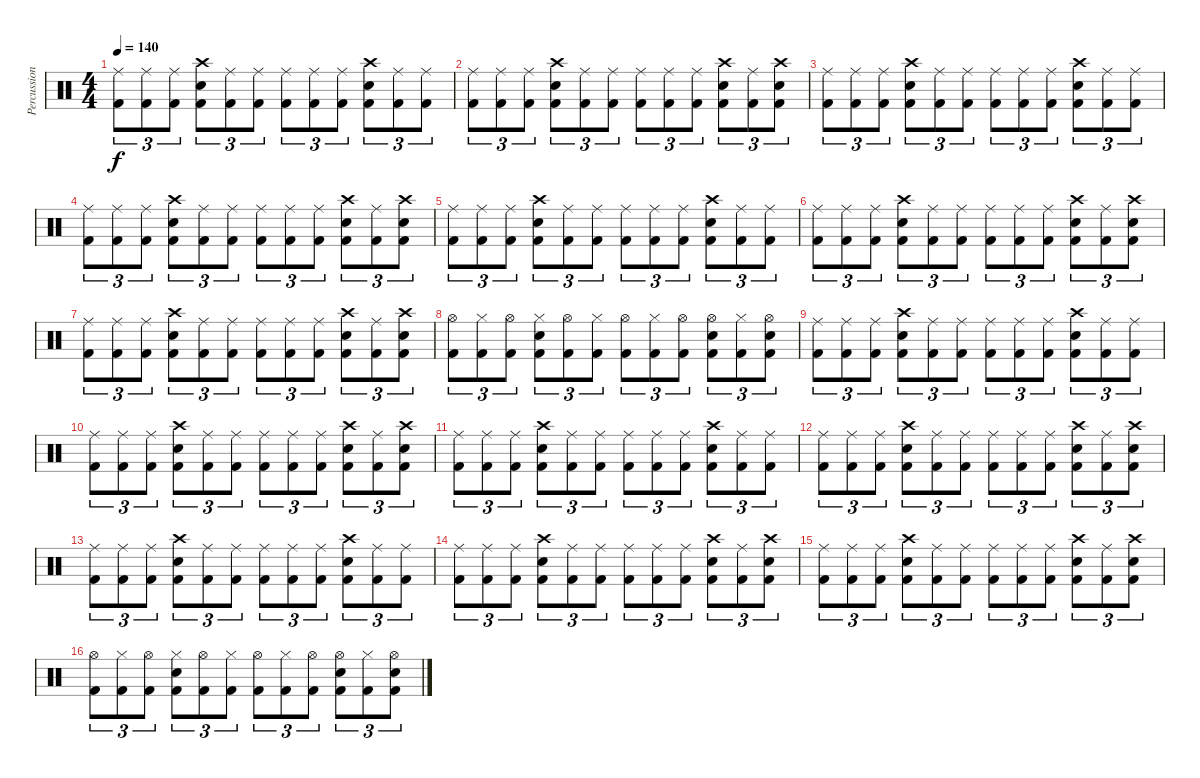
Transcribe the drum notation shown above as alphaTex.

\track ("Percussion" "Percussion") {instrument percussion}
\staff {score}
\articulation defaults
\ts (4 4)
\tempo 140
\clef neutral
\ks c
("Ride (middle)" "Kick (hit) 2").8{tu (3 2) dy f} ("Ride (middle)" "Kick (hit) 2").8{tu (3 2)} ("Ride (middle)" "Kick (hit) 2").8{tu (3 2)} ("Crash high (hit)" "Electric Snare (hit)" "Kick (hit) 2").8{tu (3 2)} ("Ride (middle)" "Kick (hit) 2").8{tu (3 2)} ("Ride (middle)" "Kick (hit) 2").8{tu (3 2)} ("Ride (middle)" "Kick (hit) 2").8{tu (3 2)} ("Ride (middle)" "Kick (hit) 2").8{tu (3 2)} ("Ride (middle)" "Kick (hit) 2").8{tu (3 2)} ("Crash high (hit)" "Electric Snare (hit)" "Kick (hit) 2").8{tu (3 2)} ("Ride (middle)" "Kick (hit) 2").8{tu (3 2)} ("Ride (middle)" "Kick (hit) 2").8{tu (3 2)} |
("Ride (middle)" "Kick (hit) 2").8{tu (3 2)} ("Ride (middle)" "Kick (hit) 2").8{tu (3 2)} ("Ride (middle)" "Kick (hit) 2").8{tu (3 2)} ("Crash high (hit)" "Electric Snare (hit)" "Kick (hit) 2").8{tu (3 2)} ("Ride (middle)" "Kick (hit) 2").8{tu (3 2)} ("Ride (middle)" "Kick (hit) 2").8{tu (3 2)} ("Ride (middle)" "Kick (hit) 2").8{tu (3 2)} ("Ride (middle)" "Kick (hit) 2").8{tu (3 2)} ("Ride (middle)" "Kick (hit) 2").8{tu (3 2)} ("Crash high (hit)" "Electric Snare (hit)" "Kick (hit) 2").8{tu (3 2)} ("Ride (middle)" "Kick (hit) 2").8{tu (3 2)} ("Crash high (hit)" "Electric Snare (hit)" "Kick (hit) 2").8{tu (3 2)} |
("Ride (middle)" "Kick (hit) 2").8{tu (3 2)} ("Ride (middle)" "Kick (hit) 2").8{tu (3 2)} ("Ride (middle)" "Kick (hit) 2").8{tu (3 2)} ("Crash high (hit)" "Electric Snare (hit)" "Kick (hit) 2").8{tu (3 2)} ("Ride (middle)" "Kick (hit) 2").8{tu (3 2)} ("Ride (middle)" "Kick (hit) 2").8{tu (3 2)} ("Ride (middle)" "Kick (hit) 2").8{tu (3 2)} ("Ride (middle)" "Kick (hit) 2").8{tu (3 2)} ("Ride (middle)" "Kick (hit) 2").8{tu (3 2)} ("Crash high (hit)" "Electric Snare (hit)" "Kick (hit) 2").8{tu (3 2)} ("Ride (middle)" "Kick (hit) 2").8{tu (3 2)} ("Ride (middle)" "Kick (hit) 2").8{tu (3 2)} |
("Ride (middle)" "Kick (hit) 2").8{tu (3 2)} ("Ride (middle)" "Kick (hit) 2").8{tu (3 2)} ("Ride (middle)" "Kick (hit) 2").8{tu (3 2)} ("Crash high (hit)" "Electric Snare (hit)" "Kick (hit) 2").8{tu (3 2)} ("Ride (middle)" "Kick (hit) 2").8{tu (3 2)} ("Ride (middle)" "Kick (hit) 2").8{tu (3 2)} ("Ride (middle)" "Kick (hit) 2").8{tu (3 2)} ("Ride (middle)" "Kick (hit) 2").8{tu (3 2)} ("Ride (middle)" "Kick (hit) 2").8{tu (3 2)} ("Crash high (hit)" "Electric Snare (hit)" "Kick (hit) 2").8{tu (3 2)} ("Ride (middle)" "Kick (hit) 2").8{tu (3 2)} ("Crash high (hit)" "Electric Snare (hit)" "Kick (hit) 2").8{tu (3 2)} |
("Ride (middle)" "Kick (hit) 2").8{tu (3 2)} ("Ride (middle)" "Kick (hit) 2").8{tu (3 2)} ("Ride (middle)" "Kick (hit) 2").8{tu (3 2)} ("Crash high (hit)" "Electric Snare (hit)" "Kick (hit) 2").8{tu (3 2)} ("Ride (middle)" "Kick (hit) 2").8{tu (3 2)} ("Ride (middle)" "Kick (hit) 2").8{tu (3 2)} ("Ride (middle)" "Kick (hit) 2").8{tu (3 2)} ("Ride (middle)" "Kick (hit) 2").8{tu (3 2)} ("Ride (middle)" "Kick (hit) 2").8{tu (3 2)} ("Crash high (hit)" "Electric Snare (hit)" "Kick (hit) 2").8{tu (3 2)} ("Ride (middle)" "Kick (hit) 2").8{tu (3 2)} ("Ride (middle)" "Kick (hit) 2").8{tu (3 2)} |
("Ride (middle)" "Kick (hit) 2").8{tu (3 2)} ("Ride (middle)" "Kick (hit) 2").8{tu (3 2)} ("Ride (middle)" "Kick (hit) 2").8{tu (3 2)} ("Crash high (hit)" "Electric Snare (hit)" "Kick (hit) 2").8{tu (3 2)} ("Ride (middle)" "Kick (hit) 2").8{tu (3 2)} ("Ride (middle)" "Kick (hit) 2").8{tu (3 2)} ("Ride (middle)" "Kick (hit) 2").8{tu (3 2)} ("Ride (middle)" "Kick (hit) 2").8{tu (3 2)} ("Ride (middle)" "Kick (hit) 2").8{tu (3 2)} ("Crash high (hit)" "Electric Snare (hit)" "Kick (hit) 2").8{tu (3 2)} ("Ride (middle)" "Kick (hit) 2").8{tu (3 2)} ("Crash high (hit)" "Electric Snare (hit)" "Kick (hit) 2").8{tu (3 2)} |
("Ride (middle)" "Kick (hit) 2").8{tu (3 2)} ("Ride (middle)" "Kick (hit) 2").8{tu (3 2)} ("Ride (middle)" "Kick (hit) 2").8{tu (3 2)} ("Crash high (hit)" "Electric Snare (hit)" "Kick (hit) 2").8{tu (3 2)} ("Ride (middle)" "Kick (hit) 2").8{tu (3 2)} ("Ride (middle)" "Kick (hit) 2").8{tu (3 2)} ("Ride (middle)" "Kick (hit) 2").8{tu (3 2)} ("Ride (middle)" "Kick (hit) 2").8{tu (3 2)} ("Ride (middle)" "Kick (hit) 2").8{tu (3 2)} ("Crash high (hit)" "Electric Snare (hit)" "Kick (hit) 2").8{tu (3 2)} ("Ride (middle)" "Kick (hit) 2").8{tu (3 2)} ("Crash high (hit)" "Electric Snare (hit)" "Kick (hit) 2").8{tu (3 2)} |
("Hi-Hat (open)" "Kick (hit) 2").8{tu (3 2)} ("Hi-Hat (closed)" "Kick (hit) 2").8{tu (3 2)} ("Hi-Hat (open)" "Kick (hit) 2").8{tu (3 2)} ("Hi-Hat (closed)" "Electric Snare (hit)" "Kick (hit) 2").8{tu (3 2)} ("Hi-Hat (open)" "Kick (hit) 2").8{tu (3 2)} ("Hi-Hat (closed)" "Kick (hit) 2").8{tu (3 2)} ("Hi-Hat (open)" "Kick (hit) 2").8{tu (3 2)} ("Hi-Hat (closed)" "Kick (hit) 2").8{tu (3 2)} ("Hi-Hat (open)" "Kick (hit) 2").8{tu (3 2)} ("Hi-Hat (open)" "Electric Snare (hit)" "Kick (hit) 2").8{tu (3 2)} ("Hi-Hat (closed)" "Kick (hit) 2").8{tu (3 2)} ("Hi-Hat (open)" "Electric Snare (hit)" "Kick (hit) 2").8{tu (3 2)} |
("Ride (middle)" "Kick (hit) 2").8{tu (3 2)} ("Ride (middle)" "Kick (hit) 2").8{tu (3 2)} ("Ride (middle)" "Kick (hit) 2").8{tu (3 2)} ("Crash high (hit)" "Electric Snare (hit)" "Kick (hit) 2").8{tu (3 2)} ("Ride (middle)" "Kick (hit) 2").8{tu (3 2)} ("Ride (middle)" "Kick (hit) 2").8{tu (3 2)} ("Ride (middle)" "Kick (hit) 2").8{tu (3 2)} ("Ride (middle)" "Kick (hit) 2").8{tu (3 2)} ("Ride (middle)" "Kick (hit) 2").8{tu (3 2)} ("Crash high (hit)" "Electric Snare (hit)" "Kick (hit) 2").8{tu (3 2)} ("Ride (middle)" "Kick (hit) 2").8{tu (3 2)} ("Ride (middle)" "Kick (hit) 2").8{tu (3 2)} |
("Ride (middle)" "Kick (hit) 2").8{tu (3 2)} ("Ride (middle)" "Kick (hit) 2").8{tu (3 2)} ("Ride (middle)" "Kick (hit) 2").8{tu (3 2)} ("Crash high (hit)" "Electric Snare (hit)" "Kick (hit) 2").8{tu (3 2)} ("Ride (middle)" "Kick (hit) 2").8{tu (3 2)} ("Ride (middle)" "Kick (hit) 2").8{tu (3 2)} ("Ride (middle)" "Kick (hit) 2").8{tu (3 2)} ("Ride (middle)" "Kick (hit) 2").8{tu (3 2)} ("Ride (middle)" "Kick (hit) 2").8{tu (3 2)} ("Crash high (hit)" "Electric Snare (hit)" "Kick (hit) 2").8{tu (3 2)} ("Ride (middle)" "Kick (hit) 2").8{tu (3 2)} ("Crash high (hit)" "Electric Snare (hit)" "Kick (hit) 2").8{tu (3 2)} |
("Ride (middle)" "Kick (hit) 2").8{tu (3 2)} ("Ride (middle)" "Kick (hit) 2").8{tu (3 2)} ("Ride (middle)" "Kick (hit) 2").8{tu (3 2)} ("Crash high (hit)" "Electric Snare (hit)" "Kick (hit) 2").8{tu (3 2)} ("Ride (middle)" "Kick (hit) 2").8{tu (3 2)} ("Ride (middle)" "Kick (hit) 2").8{tu (3 2)} ("Ride (middle)" "Kick (hit) 2").8{tu (3 2)} ("Ride (middle)" "Kick (hit) 2").8{tu (3 2)} ("Ride (middle)" "Kick (hit) 2").8{tu (3 2)} ("Crash high (hit)" "Electric Snare (hit)" "Kick (hit) 2").8{tu (3 2)} ("Ride (middle)" "Kick (hit) 2").8{tu (3 2)} ("Ride (middle)" "Kick (hit) 2").8{tu (3 2)} |
("Ride (middle)" "Kick (hit) 2").8{tu (3 2)} ("Ride (middle)" "Kick (hit) 2").8{tu (3 2)} ("Ride (middle)" "Kick (hit) 2").8{tu (3 2)} ("Crash high (hit)" "Electric Snare (hit)" "Kick (hit) 2").8{tu (3 2)} ("Ride (middle)" "Kick (hit) 2").8{tu (3 2)} ("Ride (middle)" "Kick (hit) 2").8{tu (3 2)} ("Ride (middle)" "Kick (hit) 2").8{tu (3 2)} ("Ride (middle)" "Kick (hit) 2").8{tu (3 2)} ("Ride (middle)" "Kick (hit) 2").8{tu (3 2)} ("Crash high (hit)" "Electric Snare (hit)" "Kick (hit) 2").8{tu (3 2)} ("Ride (middle)" "Kick (hit) 2").8{tu (3 2)} ("Crash high (hit)" "Electric Snare (hit)" "Kick (hit) 2").8{tu (3 2)} |
("Ride (middle)" "Kick (hit) 2").8{tu (3 2)} ("Ride (middle)" "Kick (hit) 2").8{tu (3 2)} ("Ride (middle)" "Kick (hit) 2").8{tu (3 2)} ("Crash high (hit)" "Electric Snare (hit)" "Kick (hit) 2").8{tu (3 2)} ("Ride (middle)" "Kick (hit) 2").8{tu (3 2)} ("Ride (middle)" "Kick (hit) 2").8{tu (3 2)} ("Ride (middle)" "Kick (hit) 2").8{tu (3 2)} ("Ride (middle)" "Kick (hit) 2").8{tu (3 2)} ("Ride (middle)" "Kick (hit) 2").8{tu (3 2)} ("Crash high (hit)" "Electric Snare (hit)" "Kick (hit) 2").8{tu (3 2)} ("Ride (middle)" "Kick (hit) 2").8{tu (3 2)} ("Ride (middle)" "Kick (hit) 2").8{tu (3 2)} |
("Ride (middle)" "Kick (hit) 2").8{tu (3 2)} ("Ride (middle)" "Kick (hit) 2").8{tu (3 2)} ("Ride (middle)" "Kick (hit) 2").8{tu (3 2)} ("Crash high (hit)" "Electric Snare (hit)" "Kick (hit) 2").8{tu (3 2)} ("Ride (middle)" "Kick (hit) 2").8{tu (3 2)} ("Ride (middle)" "Kick (hit) 2").8{tu (3 2)} ("Ride (middle)" "Kick (hit) 2").8{tu (3 2)} ("Ride (middle)" "Kick (hit) 2").8{tu (3 2)} ("Ride (middle)" "Kick (hit) 2").8{tu (3 2)} ("Crash high (hit)" "Electric Snare (hit)" "Kick (hit) 2").8{tu (3 2)} ("Ride (middle)" "Kick (hit) 2").8{tu (3 2)} ("Crash high (hit)" "Electric Snare (hit)" "Kick (hit) 2").8{tu (3 2)} |
("Ride (middle)" "Kick (hit) 2").8{tu (3 2)} ("Ride (middle)" "Kick (hit) 2").8{tu (3 2)} ("Ride (middle)" "Kick (hit) 2").8{tu (3 2)} ("Crash high (hit)" "Electric Snare (hit)" "Kick (hit) 2").8{tu (3 2)} ("Ride (middle)" "Kick (hit) 2").8{tu (3 2)} ("Ride (middle)" "Kick (hit) 2").8{tu (3 2)} ("Ride (middle)" "Kick (hit) 2").8{tu (3 2)} ("Ride (middle)" "Kick (hit) 2").8{tu (3 2)} ("Ride (middle)" "Kick (hit) 2").8{tu (3 2)} ("Crash high (hit)" "Electric Snare (hit)" "Kick (hit) 2").8{tu (3 2)} ("Ride (middle)" "Kick (hit) 2").8{tu (3 2)} ("Crash high (hit)" "Electric Snare (hit)" "Kick (hit) 2").8{tu (3 2)} |
("Hi-Hat (open)" "Kick (hit) 2").8{tu (3 2)} ("Hi-Hat (closed)" "Kick (hit) 2").8{tu (3 2)} ("Hi-Hat (open)" "Kick (hit) 2").8{tu (3 2)} ("Hi-Hat (closed)" "Electric Snare (hit)" "Kick (hit) 2").8{tu (3 2)} ("Hi-Hat (open)" "Kick (hit) 2").8{tu (3 2)} ("Hi-Hat (closed)" "Kick (hit) 2").8{tu (3 2)} ("Hi-Hat (open)" "Kick (hit) 2").8{tu (3 2)} ("Hi-Hat (closed)" "Kick (hit) 2").8{tu (3 2)} ("Hi-Hat (open)" "Kick (hit) 2").8{tu (3 2)} ("Hi-Hat (open)" "Electric Snare (hit)" "Kick (hit) 2").8{tu (3 2)} ("Hi-Hat (closed)" "Kick (hit) 2").8{tu (3 2)} ("Hi-Hat (open)" "Electric Snare (hit)" "Kick (hit) 2").8{tu (3 2)}
